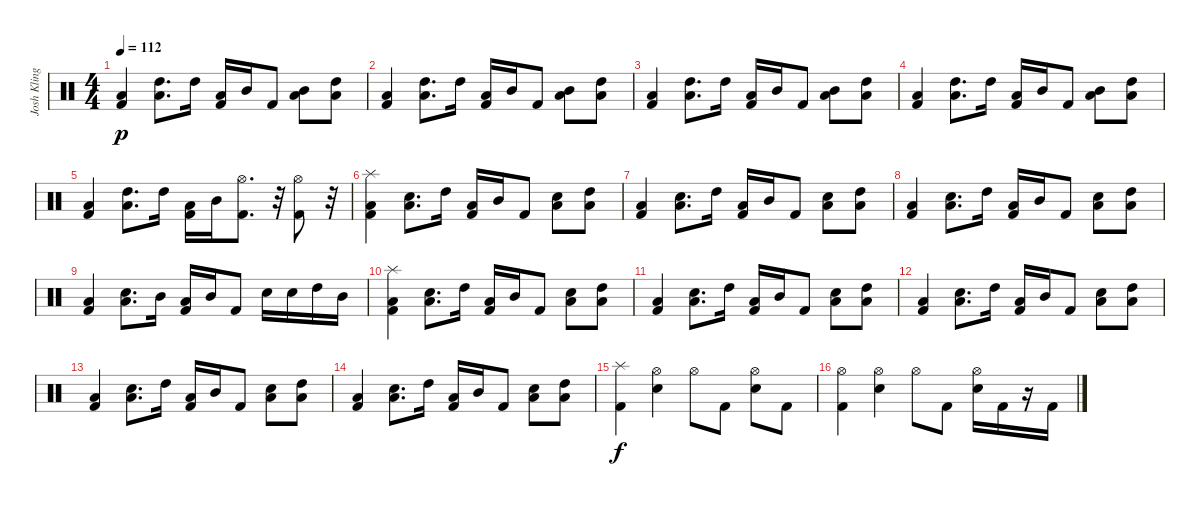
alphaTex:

\track ("Josh Klinghoffer " "Josh Kling") {instrument percussion}
\staff {score}
\articulation defaults
\ts (4 4)
\tempo 112
\clef neutral
\ks c
("Low Floor Tom (hit)" "Kick (hit) 2").4{dy p} ("High Tom (hit)" "Low Floor Tom (hit)").8{d} "High Tom (hit)".16 ("Low Floor Tom (hit)" "Kick (hit) 2").16 "Mid Tom (hit)".16 "Kick (hit) 2".8 ("Mid Tom (hit)" "Low Floor Tom (hit)").8 ("High Tom (hit)" "Low Floor Tom (hit)").8 |
("Low Floor Tom (hit)" "Kick (hit) 2").4 ("High Tom (hit)" "Low Floor Tom (hit)").8{d} "High Tom (hit)".16 ("Low Floor Tom (hit)" "Kick (hit) 2").16 "Mid Tom (hit)".16 "Kick (hit) 2".8 ("Mid Tom (hit)" "Low Floor Tom (hit)").8 ("High Tom (hit)" "Low Floor Tom (hit)").8 |
("Low Floor Tom (hit)" "Kick (hit) 2").4 ("High Tom (hit)" "Low Floor Tom (hit)").8{d} "High Tom (hit)".16 ("Low Floor Tom (hit)" "Kick (hit) 2").16 "Mid Tom (hit)".16 "Kick (hit) 2".8 ("Mid Tom (hit)" "Low Floor Tom (hit)").8 ("High Tom (hit)" "Low Floor Tom (hit)").8 |
("Low Floor Tom (hit)" "Kick (hit) 2").4 ("High Tom (hit)" "Low Floor Tom (hit)").8{d} "High Tom (hit)".16 ("Low Floor Tom (hit)" "Kick (hit) 2").16 "Mid Tom (hit)".16 "Kick (hit) 2".8 ("Mid Tom (hit)" "Low Floor Tom (hit)").8 ("High Tom (hit)" "Low Floor Tom (hit)").8 |
("Low Floor Tom (hit)" "Kick (hit) 2").4 ("High Tom (hit)" "Low Floor Tom (hit)").8{d} "High Tom (hit)".16 ("Low Floor Tom (hit)" "Kick (hit) 2").16 "Mid Tom (hit)".16 ("Hi-Hat (open)" "Kick (hit) 2").8{d} r.32 ("Hi-Hat (open)" "Kick (hit) 2").8 r.32 |
("Splash (hit)" "Low Floor Tom (hit)" "Kick (hit) 2").4 ("Electric Snare (hit)" "Low Floor Tom (hit)").8{d} "High Tom (hit)".16 ("Low Floor Tom (hit)" "Kick (hit) 2").16 "Mid Tom (hit)".16 "Kick (hit) 2".8 ("Electric Snare (hit)" "Low Floor Tom (hit)").8 ("High Tom (hit)" "Low Floor Tom (hit)").8 |
("Low Floor Tom (hit)" "Kick (hit) 2").4 ("Electric Snare (hit)" "Low Floor Tom (hit)").8{d} "High Tom (hit)".16 ("Low Floor Tom (hit)" "Kick (hit) 2").16 "Mid Tom (hit)".16 "Kick (hit) 2".8 ("Electric Snare (hit)" "Low Floor Tom (hit)").8 ("High Tom (hit)" "Low Floor Tom (hit)").8 |
("Low Floor Tom (hit)" "Kick (hit) 2").4 ("Electric Snare (hit)" "Low Floor Tom (hit)").8{d} "High Tom (hit)".16 ("Low Floor Tom (hit)" "Kick (hit) 2").16 "Mid Tom (hit)".16 "Kick (hit) 2".8 ("Electric Snare (hit)" "Low Floor Tom (hit)").8 ("High Tom (hit)" "Low Floor Tom (hit)").8 |
("Low Floor Tom (hit)" "Kick (hit) 2").4 ("Electric Snare (hit)" "Low Floor Tom (hit)").8{d} "Mid Tom (hit)".16 ("Low Floor Tom (hit)" "Kick (hit) 2").16 "Mid Tom (hit)".16 "Kick (hit) 2".8 "Electric Snare (hit)".16 "Electric Snare (hit)".16 "High Tom (hit)".16 "Mid Tom (hit)".16 |
("Splash (hit)" "Low Floor Tom (hit)" "Kick (hit) 2").4 ("Electric Snare (hit)" "Low Floor Tom (hit)").8{d} "High Tom (hit)".16 ("Low Floor Tom (hit)" "Kick (hit) 2").16 "Mid Tom (hit)".16 "Kick (hit) 2".8 ("Electric Snare (hit)" "Low Floor Tom (hit)").8 ("High Tom (hit)" "Low Floor Tom (hit)").8 |
("Low Floor Tom (hit)" "Kick (hit) 2").4 ("Electric Snare (hit)" "Low Floor Tom (hit)").8{d} "High Tom (hit)".16 ("Low Floor Tom (hit)" "Kick (hit) 2").16 "Mid Tom (hit)".16 "Kick (hit) 2".8 ("Electric Snare (hit)" "Low Floor Tom (hit)").8 ("High Tom (hit)" "Low Floor Tom (hit)").8 |
("Low Floor Tom (hit)" "Kick (hit) 2").4 ("Electric Snare (hit)" "Low Floor Tom (hit)").8{d} "High Tom (hit)".16 ("Low Floor Tom (hit)" "Kick (hit) 2").16 "Mid Tom (hit)".16 "Kick (hit) 2".8 ("Electric Snare (hit)" "Low Floor Tom (hit)").8 ("High Tom (hit)" "Low Floor Tom (hit)").8 |
("Low Floor Tom (hit)" "Kick (hit) 2").4 ("Electric Snare (hit)" "Low Floor Tom (hit)").8{d} "High Tom (hit)".16 ("Low Floor Tom (hit)" "Kick (hit) 2").16 "Mid Tom (hit)".16 "Kick (hit) 2".8 ("Electric Snare (hit)" "Low Floor Tom (hit)").8 ("High Tom (hit)" "Low Floor Tom (hit)").8 |
("Low Floor Tom (hit)" "Kick (hit) 2").4 ("Electric Snare (hit)" "Low Floor Tom (hit)").8{d} "High Tom (hit)".16 ("Low Floor Tom (hit)" "Kick (hit) 2").16 "Mid Tom (hit)".16 "Kick (hit) 2".8 ("Electric Snare (hit)" "Low Floor Tom (hit)").8 ("High Tom (hit)" "Low Floor Tom (hit)").8 |
("Splash (hit)" "Kick (hit) 2").4{dy f} ("Hi-Hat (open)" "Electric Snare (hit)").4 "Hi-Hat (open)".8 "Kick (hit) 2".8 ("Hi-Hat (open)" "Electric Snare (hit)").8 "Kick (hit) 2".8 |
("Hi-Hat (open)" "Kick (hit) 2").4 ("Hi-Hat (open)" "Electric Snare (hit)").4 "Hi-Hat (open)".8 "Kick (hit) 2".8 ("Hi-Hat (open)" "Electric Snare (hit)").16 "Kick (hit) 2".16 r.16 "Kick (hit) 2".16
